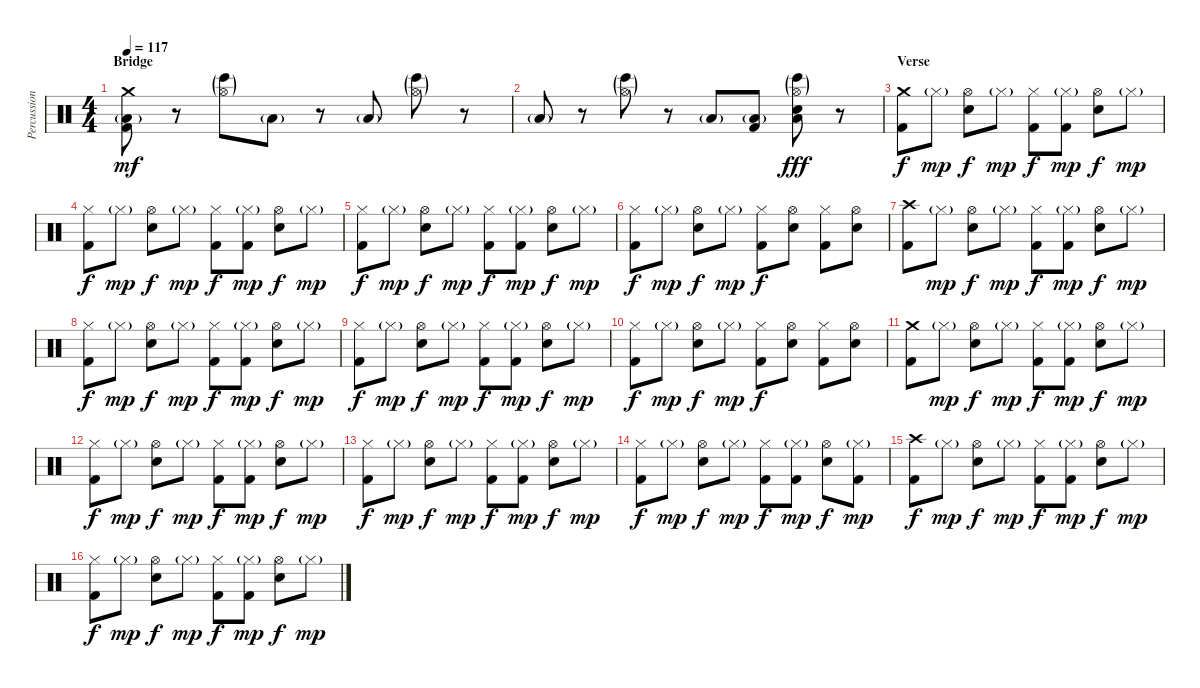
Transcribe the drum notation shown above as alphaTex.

\track ("Percussion" "Percussion") {instrument percussion}
\staff {score}
\articulation defaults
\ts (4 4)
\section ("" "Bridge")
\tempo 117
\clef neutral
\ks c
("Crash medium (hit)" "Low Floor Tom (hit)"{g} "Kick (hit) 2").8{dy mf} r.8 ("Bongo High (hit)"{g} "Hi-Hat (open)"{g}).8 "Low Floor Tom (hit)"{g}.8 r.8 "Low Floor Tom (hit)"{g}.8 ("Bongo High (hit)"{g} "Hi-Hat (open)"{g}).8 r.8 |
"Low Floor Tom (hit)"{g}.8 r.8 ("Bongo High (hit)"{g} "Hi-Hat (open)"{g}).8 r.8 "Low Floor Tom (hit)"{g}.8 ("Low Floor Tom (hit)"{g} "Kick (hit) 2").8 ("Bongo High (hit)"{g} "Hi-Hat (open)"{g} "Low Floor Tom (hit)" "Electric Snare (hit)").8{dy fff} r.8 |
\section ("" "Verse")
("Crash medium (hit)" "Kick (hit) 2").8{dy f} "Hi-Hat (closed)"{g}.8{dy mp} ("Hi-Hat (open)" "Electric Snare (hit)").8{dy f} "Hi-Hat (closed)"{g}.8{dy mp} ("Hi-Hat (closed)" "Kick (hit) 2").8{dy f} ("Hi-Hat (closed)"{g} "Kick (hit) 2").8{dy mp} ("Hi-Hat (open)" "Electric Snare (hit)").8{dy f} "Hi-Hat (closed)"{g}.8{dy mp} |
("Hi-Hat (closed)" "Kick (hit) 2").8{dy f} "Hi-Hat (closed)"{g}.8{dy mp} ("Hi-Hat (open)" "Electric Snare (hit)").8{dy f} "Hi-Hat (closed)"{g}.8{dy mp} ("Hi-Hat (closed)" "Kick (hit) 2").8{dy f} ("Hi-Hat (closed)"{g} "Kick (hit) 2").8{dy mp} ("Hi-Hat (open)" "Electric Snare (hit)").8{dy f} "Hi-Hat (closed)"{g}.8{dy mp} |
("Hi-Hat (closed)" "Kick (hit) 2").8{dy f} "Hi-Hat (closed)"{g}.8{dy mp} ("Hi-Hat (open)" "Electric Snare (hit)").8{dy f} "Hi-Hat (closed)"{g}.8{dy mp} ("Hi-Hat (closed)" "Kick (hit) 2").8{dy f} ("Hi-Hat (closed)"{g} "Kick (hit) 2").8{dy mp} ("Hi-Hat (open)" "Electric Snare (hit)").8{dy f} "Hi-Hat (closed)"{g}.8{dy mp} |
("Hi-Hat (closed)" "Kick (hit) 2").8{dy f} "Hi-Hat (closed)"{g}.8{dy mp} ("Hi-Hat (open)" "Electric Snare (hit)").8{dy f} "Hi-Hat (closed)"{g}.8{dy mp} ("Hi-Hat (closed)" "Kick (hit) 2").8{dy f} ("Hi-Hat (open)" "Electric Snare (hit)").8 ("Hi-Hat (closed)" "Kick (hit) 2").8 ("Hi-Hat (open)" "Electric Snare (hit)").8 |
("Crash high (hit)" "Kick (hit) 2").8 "Hi-Hat (closed)"{g}.8{dy mp} ("Hi-Hat (open)" "Electric Snare (hit)").8{dy f} "Hi-Hat (closed)"{g}.8{dy mp} ("Hi-Hat (closed)" "Kick (hit) 2").8{dy f} ("Hi-Hat (closed)"{g} "Kick (hit) 2").8{dy mp} ("Hi-Hat (open)" "Electric Snare (hit)").8{dy f} "Hi-Hat (closed)"{g}.8{dy mp} |
("Hi-Hat (closed)" "Kick (hit) 2").8{dy f} "Hi-Hat (closed)"{g}.8{dy mp} ("Hi-Hat (open)" "Electric Snare (hit)").8{dy f} "Hi-Hat (closed)"{g}.8{dy mp} ("Hi-Hat (closed)" "Kick (hit) 2").8{dy f} ("Hi-Hat (closed)"{g} "Kick (hit) 2").8{dy mp} ("Hi-Hat (open)" "Electric Snare (hit)").8{dy f} "Hi-Hat (closed)"{g}.8{dy mp} |
("Hi-Hat (closed)" "Kick (hit) 2").8{dy f} "Hi-Hat (closed)"{g}.8{dy mp} ("Hi-Hat (open)" "Electric Snare (hit)").8{dy f} "Hi-Hat (closed)"{g}.8{dy mp} ("Hi-Hat (closed)" "Kick (hit) 2").8{dy f} ("Hi-Hat (closed)"{g} "Kick (hit) 2").8{dy mp} ("Hi-Hat (open)" "Electric Snare (hit)").8{dy f} "Hi-Hat (closed)"{g}.8{dy mp} |
("Hi-Hat (closed)" "Kick (hit) 2").8{dy f} "Hi-Hat (closed)"{g}.8{dy mp} ("Hi-Hat (open)" "Electric Snare (hit)").8{dy f} "Hi-Hat (closed)"{g}.8{dy mp} ("Hi-Hat (closed)" "Kick (hit) 2").8{dy f} ("Hi-Hat (open)" "Electric Snare (hit)").8 ("Hi-Hat (closed)" "Kick (hit) 2").8 ("Hi-Hat (open)" "Electric Snare (hit)").8 |
("Crash medium (hit)" "Kick (hit) 2").8 "Hi-Hat (closed)"{g}.8{dy mp} ("Hi-Hat (open)" "Electric Snare (hit)").8{dy f} "Hi-Hat (closed)"{g}.8{dy mp} ("Hi-Hat (closed)" "Kick (hit) 2").8{dy f} ("Hi-Hat (closed)"{g} "Kick (hit) 2").8{dy mp} ("Hi-Hat (open)" "Electric Snare (hit)").8{dy f} "Hi-Hat (closed)"{g}.8{dy mp} |
("Hi-Hat (closed)" "Kick (hit) 2").8{dy f} "Hi-Hat (closed)"{g}.8{dy mp} ("Hi-Hat (open)" "Electric Snare (hit)").8{dy f} "Hi-Hat (closed)"{g}.8{dy mp} ("Hi-Hat (closed)" "Kick (hit) 2").8{dy f} ("Hi-Hat (closed)"{g} "Kick (hit) 2").8{dy mp} ("Hi-Hat (open)" "Electric Snare (hit)").8{dy f} "Hi-Hat (closed)"{g}.8{dy mp} |
("Hi-Hat (closed)" "Kick (hit) 2").8{dy f} "Hi-Hat (closed)"{g}.8{dy mp} ("Hi-Hat (open)" "Electric Snare (hit)").8{dy f} "Hi-Hat (closed)"{g}.8{dy mp} ("Hi-Hat (closed)" "Kick (hit) 2").8{dy f} ("Hi-Hat (closed)"{g} "Kick (hit) 2").8{dy mp} ("Hi-Hat (open)" "Electric Snare (hit)").8{dy f} "Hi-Hat (closed)"{g}.8{dy mp} |
("Hi-Hat (closed)" "Kick (hit) 2").8{dy f} "Hi-Hat (closed)"{g}.8{dy mp} ("Hi-Hat (open)" "Electric Snare (hit)").8{dy f} "Hi-Hat (closed)"{g}.8{dy mp} ("Hi-Hat (closed)" "Kick (hit) 2").8{dy f} ("Hi-Hat (closed)"{g} "Kick (hit) 2").8{dy mp} ("Hi-Hat (open)" "Electric Snare (hit)").8{dy f} ("Hi-Hat (closed)"{g} "Kick (hit) 2").8{dy mp} |
("Crash high (hit)" "Kick (hit) 2").8{dy f} "Hi-Hat (closed)"{g}.8{dy mp} ("Hi-Hat (open)" "Electric Snare (hit)").8{dy f} "Hi-Hat (closed)"{g}.8{dy mp} ("Hi-Hat (closed)" "Kick (hit) 2").8{dy f} ("Hi-Hat (closed)"{g} "Kick (hit) 2").8{dy mp} ("Hi-Hat (open)" "Electric Snare (hit)").8{dy f} "Hi-Hat (closed)"{g}.8{dy mp} |
("Hi-Hat (closed)" "Kick (hit) 2").8{dy f} "Hi-Hat (closed)"{g}.8{dy mp} ("Hi-Hat (open)" "Electric Snare (hit)").8{dy f} "Hi-Hat (closed)"{g}.8{dy mp} ("Hi-Hat (closed)" "Kick (hit) 2").8{dy f} ("Hi-Hat (closed)"{g} "Kick (hit) 2").8{dy mp} ("Hi-Hat (open)" "Electric Snare (hit)").8{dy f} "Hi-Hat (closed)"{g}.8{dy mp}
